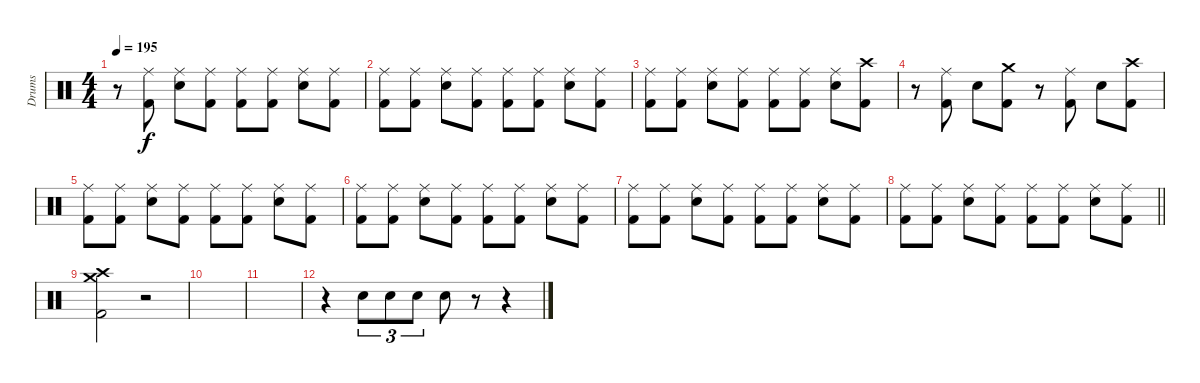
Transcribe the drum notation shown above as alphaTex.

\track ("Drums" "Drums") {instrument percussion}
\staff {score}
\articulation defaults
\ts (4 4)
\tempo 195
\clef neutral
\ks c
r.8{dy f} ("Ride (middle)" "Kick (hit) 2").8 ("Ride (middle)" "Electric Snare (hit)").8 ("Ride (middle)" "Kick (hit) 2").8 ("Ride (middle)" "Kick (hit) 2").8 ("Ride (middle)" "Kick (hit) 2").8 ("Ride (middle)" "Electric Snare (hit)").8 ("Ride (middle)" "Kick (hit) 2").8 |
("Ride (middle)" "Kick (hit) 2").8 ("Ride (middle)" "Kick (hit) 2").8 ("Ride (middle)" "Electric Snare (hit)").8 ("Ride (middle)" "Kick (hit) 2").8 ("Ride (middle)" "Kick (hit) 2").8 ("Ride (middle)" "Kick (hit) 2").8 ("Ride (middle)" "Electric Snare (hit)").8 ("Ride (middle)" "Kick (hit) 2").8 |
("Ride (middle)" "Kick (hit) 2").8 ("Ride (middle)" "Kick (hit) 2").8 ("Ride (middle)" "Electric Snare (hit)").8 ("Ride (middle)" "Kick (hit) 2").8 ("Ride (middle)" "Kick (hit) 2").8 ("Ride (middle)" "Kick (hit) 2").8 ("Ride (middle)" "Electric Snare (hit)").8 ("Crash high (hit)" "Kick (hit) 2").8 |
r.8 ("Ride (middle)" "Kick (hit) 2").8 "Electric Snare (hit)".8 ("Crash medium (hit)" "Kick (hit) 2").8 r.8 ("Ride (middle)" "Kick (hit) 2").8 "Electric Snare (hit)".8 ("Crash high (hit)" "Kick (hit) 2").8 |
("Ride (middle)" "Kick (hit) 2").8 ("Ride (middle)" "Kick (hit) 2").8 ("Ride (middle)" "Electric Snare (hit)").8 ("Ride (middle)" "Kick (hit) 2").8 ("Ride (middle)" "Kick (hit) 2").8 ("Ride (middle)" "Kick (hit) 2").8 ("Ride (middle)" "Electric Snare (hit)").8 ("Ride (middle)" "Kick (hit) 2").8 |
("Ride (middle)" "Kick (hit) 2").8 ("Ride (middle)" "Kick (hit) 2").8 ("Ride (middle)" "Electric Snare (hit)").8 ("Ride (middle)" "Kick (hit) 2").8 ("Ride (middle)" "Kick (hit) 2").8 ("Ride (middle)" "Kick (hit) 2").8 ("Ride (middle)" "Electric Snare (hit)").8 ("Ride (middle)" "Kick (hit) 2").8 |
("Ride (middle)" "Kick (hit) 2").8 ("Ride (middle)" "Kick (hit) 2").8 ("Ride (middle)" "Electric Snare (hit)").8 ("Ride (middle)" "Kick (hit) 2").8 ("Ride (middle)" "Kick (hit) 2").8 ("Ride (middle)" "Kick (hit) 2").8 ("Ride (middle)" "Electric Snare (hit)").8 ("Ride (middle)" "Kick (hit) 2").8 |
\barLineRight lightlight
("Ride (middle)" "Kick (hit) 2").8 ("Ride (middle)" "Kick (hit) 2").8 ("Ride (middle)" "Electric Snare (hit)").8 ("Ride (middle)" "Kick (hit) 2").8 ("Ride (middle)" "Kick (hit) 2").8 ("Ride (middle)" "Kick (hit) 2").8 ("Ride (middle)" "Electric Snare (hit)").8 ("Ride (middle)" "Kick (hit) 2").8 |
("Crash high (hit)" "Crash medium (hit)" "Kick (hit) 2").2 r.2 |
|
|
r.4 "Electric Snare (hit)".8{tu (3 2)} "Electric Snare (hit)".8{tu (3 2)} "Electric Snare (hit)".8{tu (3 2)} "Electric Snare (hit)".8 r.8 r.4
